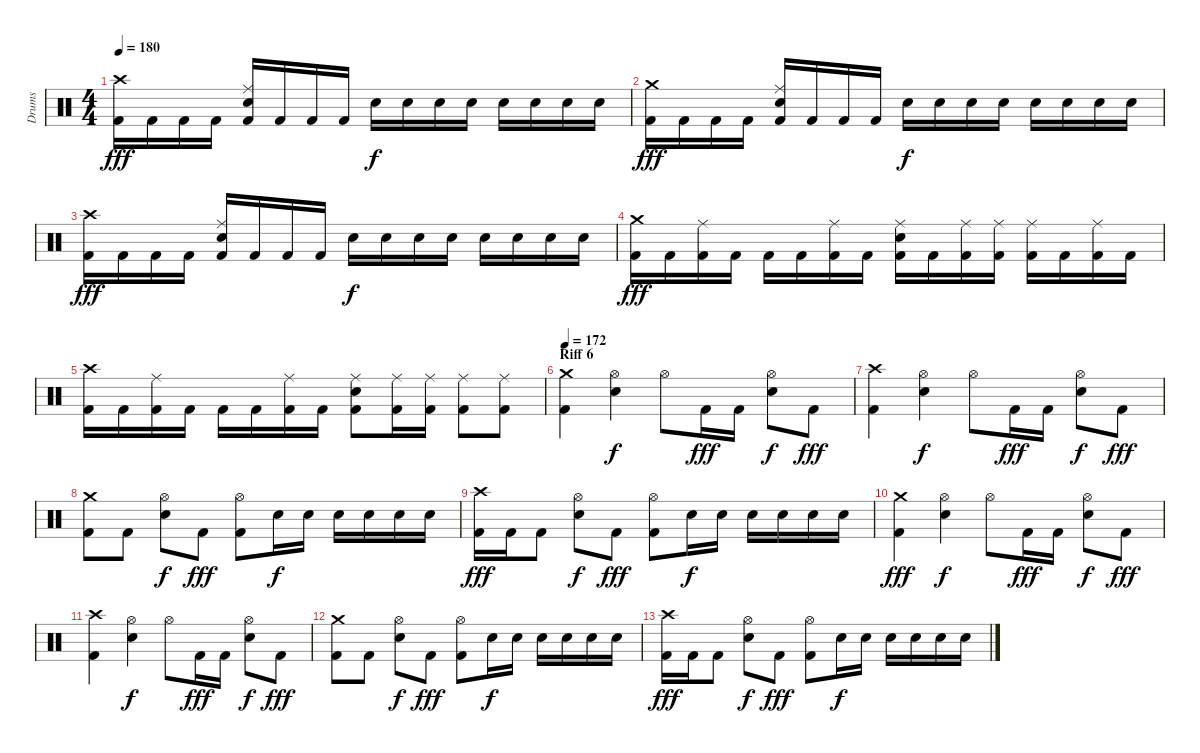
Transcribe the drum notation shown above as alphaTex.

\track ("Drums" "Drums") {instrument percussion}
\staff {score}
\articulation defaults
\ts (4 4)
\tempo 180
\clef neutral
\ks c
("Crash high (hit)" "Kick (hit) 2").16{dy fff} "Kick (hit) 2".16 "Kick (hit) 2".16 "Kick (hit) 2".16 ("Ride (middle)" "Electric Snare (hit)" "Kick (hit) 2").16 "Kick (hit) 2".16 "Kick (hit) 2".16 "Kick (hit) 2".16 "Electric Snare (hit)".16{dy f} "Electric Snare (hit)".16 "Electric Snare (hit)".16 "Electric Snare (hit)".16 "Electric Snare (hit)".16 "Electric Snare (hit)".16 "Electric Snare (hit)".16 "Electric Snare (hit)".16 |
("Crash medium (hit)" "Kick (hit) 2").16{dy fff} "Kick (hit) 2".16 "Kick (hit) 2".16 "Kick (hit) 2".16 ("Ride (middle)" "Electric Snare (hit)" "Kick (hit) 2").16 "Kick (hit) 2".16 "Kick (hit) 2".16 "Kick (hit) 2".16 "Electric Snare (hit)".16{dy f} "Electric Snare (hit)".16 "Electric Snare (hit)".16 "Electric Snare (hit)".16 "Electric Snare (hit)".16 "Electric Snare (hit)".16 "Electric Snare (hit)".16 "Electric Snare (hit)".16 |
("Crash high (hit)" "Kick (hit) 2").16{dy fff} "Kick (hit) 2".16 "Kick (hit) 2".16 "Kick (hit) 2".16 ("Ride (middle)" "Electric Snare (hit)" "Kick (hit) 2").16 "Kick (hit) 2".16 "Kick (hit) 2".16 "Kick (hit) 2".16 "Electric Snare (hit)".16{dy f} "Electric Snare (hit)".16 "Electric Snare (hit)".16 "Electric Snare (hit)".16 "Electric Snare (hit)".16 "Electric Snare (hit)".16 "Electric Snare (hit)".16 "Electric Snare (hit)".16 |
("Crash medium (hit)" "Kick (hit) 2").16{dy fff} "Kick (hit) 2".16 ("Ride (middle)" "Kick (hit) 2").16 "Kick (hit) 2".16 "Kick (hit) 2".16 "Kick (hit) 2".16 ("Ride (middle)" "Kick (hit) 2").16 "Kick (hit) 2".16 ("Ride (middle)" "Electric Snare (hit)" "Kick (hit) 2").16 "Kick (hit) 2".16 ("Ride (middle)" "Kick (hit) 2").16 ("Ride (middle)" "Kick (hit) 2").16 ("Ride (middle)" "Kick (hit) 2").16 "Kick (hit) 2".16 ("Ride (middle)" "Kick (hit) 2").16 "Kick (hit) 2".16 |
("Crash high (hit)" "Kick (hit) 2").16 "Kick (hit) 2".16 ("Ride (middle)" "Kick (hit) 2").16 "Kick (hit) 2".16 "Kick (hit) 2".16 "Kick (hit) 2".16 ("Ride (middle)" "Kick (hit) 2").16 "Kick (hit) 2".16 ("Ride (middle)" "Electric Snare (hit)" "Kick (hit) 2").8 ("Ride (middle)" "Kick (hit) 2").16 ("Ride (middle)" "Kick (hit) 2").16 ("Ride (middle)" "Kick (hit) 2").8 ("Ride (middle)" "Kick (hit) 2").8 |
\section ("" "Riff 6")
\tempo 172
("Crash medium (hit)" "Kick (hit) 2").4 ("Hi-Hat (open)" "Electric Snare (hit)").4{dy f} "Hi-Hat (open)".8 "Kick (hit) 2".16{dy fff} "Kick (hit) 2".16 ("Hi-Hat (open)" "Electric Snare (hit)").8{dy f} "Kick (hit) 2".8{dy fff} |
("Crash high (hit)" "Kick (hit) 2").4 ("Hi-Hat (open)" "Electric Snare (hit)").4{dy f} "Hi-Hat (open)".8 "Kick (hit) 2".16{dy fff} "Kick (hit) 2".16 ("Hi-Hat (open)" "Electric Snare (hit)").8{dy f} "Kick (hit) 2".8{dy fff} |
("Crash medium (hit)" "Kick (hit) 2").8 "Kick (hit) 2".8 ("Hi-Hat (open)" "Electric Snare (hit)").8{dy f} "Kick (hit) 2".8{dy fff} ("Hi-Hat (open)" "Kick (hit) 2").8 "Electric Snare (hit)".16{dy f} "Electric Snare (hit)".16 "Electric Snare (hit)".16 "Electric Snare (hit)".16 "Electric Snare (hit)".16 "Electric Snare (hit)".16 |
("Crash high (hit)" "Kick (hit) 2").16{dy fff} "Kick (hit) 2".16 "Kick (hit) 2".8 ("Hi-Hat (open)" "Electric Snare (hit)").8{dy f} "Kick (hit) 2".8{dy fff} ("Hi-Hat (open)" "Kick (hit) 2").8 "Electric Snare (hit)".16{dy f} "Electric Snare (hit)".16 "Electric Snare (hit)".16 "Electric Snare (hit)".16 "Electric Snare (hit)".16 "Electric Snare (hit)".16 |
("Crash medium (hit)" "Kick (hit) 2").4{dy fff} ("Hi-Hat (open)" "Electric Snare (hit)").4{dy f} "Hi-Hat (open)".8 "Kick (hit) 2".16{dy fff} "Kick (hit) 2".16 ("Hi-Hat (open)" "Electric Snare (hit)").8{dy f} "Kick (hit) 2".8{dy fff} |
("Crash high (hit)" "Kick (hit) 2").4 ("Hi-Hat (open)" "Electric Snare (hit)").4{dy f} "Hi-Hat (open)".8 "Kick (hit) 2".16{dy fff} "Kick (hit) 2".16 ("Hi-Hat (open)" "Electric Snare (hit)").8{dy f} "Kick (hit) 2".8{dy fff} |
("Crash medium (hit)" "Kick (hit) 2").8 "Kick (hit) 2".8 ("Hi-Hat (open)" "Electric Snare (hit)").8{dy f} "Kick (hit) 2".8{dy fff} ("Hi-Hat (open)" "Kick (hit) 2").8 "Electric Snare (hit)".16{dy f} "Electric Snare (hit)".16 "Electric Snare (hit)".16 "Electric Snare (hit)".16 "Electric Snare (hit)".16 "Electric Snare (hit)".16 |
("Crash high (hit)" "Kick (hit) 2").16{dy fff} "Kick (hit) 2".16 "Kick (hit) 2".8 ("Hi-Hat (open)" "Electric Snare (hit)").8{dy f} "Kick (hit) 2".8{dy fff} ("Hi-Hat (open)" "Kick (hit) 2").8 "Electric Snare (hit)".16{dy f} "Electric Snare (hit)".16 "Electric Snare (hit)".16 "Electric Snare (hit)".16 "Electric Snare (hit)".16 "Electric Snare (hit)".16
